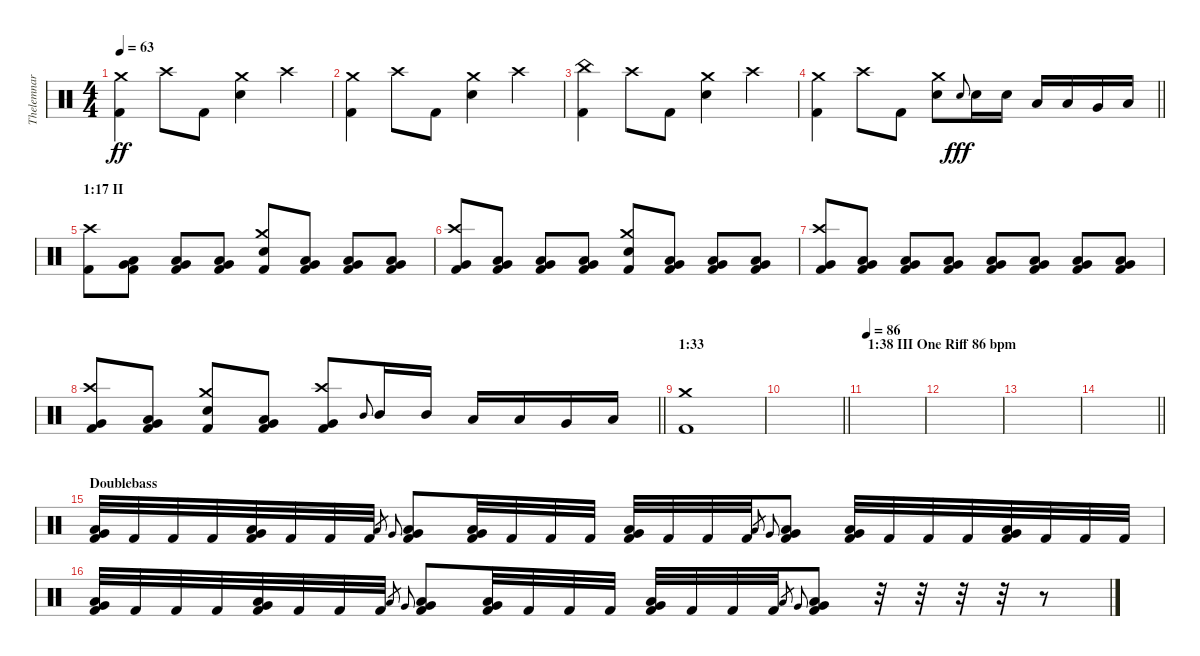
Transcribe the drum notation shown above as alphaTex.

\track ("Thelemnar (Drums)" "Thelemnar ") {instrument percussion}
\staff {score}
\articulation defaults
\ts (4 4)
\tempo 63
\clef neutral
\ks c
("Kick (hit) 2" "Crash medium (hit)").4{dy ff} "Crash high (hit)".8 "Kick (hit) 2".8 ("Electric Snare (hit)" "Crash medium (hit)").4 "Crash high (hit)".4 |
("Kick (hit) 2" "Crash medium (hit)").4 "Crash high (hit)".8 "Kick (hit) 2".8 ("Electric Snare (hit)" "Crash medium (hit)").4 "Crash high (hit)".4 |
("Kick (hit) 2" "China (hit)").4 "Crash high (hit)".8 "Kick (hit) 2".8 ("Electric Snare (hit)" "Crash medium (hit)").4 "Crash high (hit)".4 |
\barLineRight lightlight
("Kick (hit) 2" "Crash medium (hit)").4 "Crash high (hit)".8 "Kick (hit) 2".8 ("Electric Snare (hit)" "Crash medium (hit)").8 "Electric Snare (hit)".8{gr onbeat dy fff} "Electric Snare (hit)".16 "Electric Snare (hit)".16 "Low Tom (hit)".16 "Low Tom (hit)".16 "Very Low Tom (hit)".16 "Low Floor Tom (hit)".16 |
\section ("" "1:17 II ")
("Kick (hit) 2" "Crash high (hit)").8 ("Kick (hit) 2" "Very Low Tom (hit)" "Low Tom (hit)").8 ("Kick (hit) 2" "Very Low Tom (hit)" "Low Tom (hit)").8 ("Kick (hit) 2" "Very Low Tom (hit)" "Low Tom (hit)").8 ("Kick (hit) 2" "Electric Snare (hit)" "Crash medium (hit)").8 ("Kick (hit) 2" "Very Low Tom (hit)" "Low Tom (hit)").8 ("Kick (hit) 2" "Very Low Tom (hit)" "Low Tom (hit)").8 ("Kick (hit) 2" "Very Low Tom (hit)" "Low Tom (hit)").8 |
("Kick (hit) 2" "Very Low Tom (hit)" "Crash high (hit)").8 ("Kick (hit) 2" "Very Low Tom (hit)" "Low Tom (hit)").8 ("Kick (hit) 2" "Very Low Tom (hit)" "Low Tom (hit)").8 ("Kick (hit) 2" "Very Low Tom (hit)" "Low Tom (hit)").8 ("Kick (hit) 2" "Electric Snare (hit)" "Crash medium (hit)").8 ("Kick (hit) 2" "Very Low Tom (hit)" "Low Tom (hit)").8 ("Kick (hit) 2" "Very Low Tom (hit)" "Low Tom (hit)").8 ("Kick (hit) 2" "Very Low Tom (hit)" "Low Tom (hit)").8 |
("Kick (hit) 2" "Very Low Tom (hit)" "Crash high (hit)").8 ("Kick (hit) 2" "Very Low Tom (hit)" "Low Tom (hit)").8 ("Kick (hit) 2" "Very Low Tom (hit)" "Low Tom (hit)").8 ("Kick (hit) 2" "Very Low Tom (hit)" "Low Tom (hit)").8 ("Kick (hit) 2" "Very Low Tom (hit)" "Low Tom (hit)").8 ("Kick (hit) 2" "Very Low Tom (hit)" "Low Tom (hit)").8 ("Kick (hit) 2" "Very Low Tom (hit)" "Low Tom (hit)").8 ("Kick (hit) 2" "Very Low Tom (hit)" "Low Tom (hit)").8 |
\barLineRight lightlight
("Kick (hit) 2" "Very Low Tom (hit)" "Crash high (hit)").8 ("Kick (hit) 2" "Very Low Tom (hit)" "Low Tom (hit)").8 ("Kick (hit) 2" "Electric Snare (hit)" "Crash medium (hit)").8 ("Kick (hit) 2" "Very Low Tom (hit)" "Low Tom (hit)").8 ("Kick (hit) 2" "Very Low Tom (hit)" "Crash high (hit)").8 "Mid Tom (hit)".8{gr onbeat} "Mid Tom (hit)".16 "Mid Tom (hit)".16 "Low Tom (hit)".16 "Low Tom (hit)".16 "Very Low Tom (hit)".16 "Low Floor Tom (hit)".16 |
\section ("" "1:33")
("Kick (hit) 2" "Crash medium (hit)").1 |
\barLineRight lightlight
|
\section ("" "1:38 III One Riff 86 bpm")
\tempo 86
|
|
|
\barLineRight lightlight
|
\section ("" "Doublebass")
("Kick (hit) 2" "Low Floor Tom (hit)" "Very Low Tom (hit)").32 "Kick (hit) 2".32 "Kick (hit) 2".32 "Kick (hit) 2".32 ("Kick (hit) 2" "Low Floor Tom (hit)" "Very Low Tom (hit)").32 "Kick (hit) 2".32 "Kick (hit) 2".32 "Kick (hit) 2".32 "Low Tom (hit)".16{gr} "Very Low Tom (hit)".16{gr onbeat} ("Kick (hit) 2" "Low Tom (hit)" "Very Low Tom (hit)").8 ("Kick (hit) 2" "Low Floor Tom (hit)" "Very Low Tom (hit)").32 "Kick (hit) 2".32 "Kick (hit) 2".32 "Kick (hit) 2".32 ("Kick (hit) 2" "Low Floor Tom (hit)" "Very Low Tom (hit)").32 "Kick (hit) 2".32 "Kick (hit) 2".32 "Kick (hit) 2".32 "Low Tom (hit)".16{gr} "Very Low Tom (hit)".16{gr onbeat} ("Kick (hit) 2" "Low Tom (hit)" "Very Low Tom (hit)").8 ("Kick (hit) 2" "Low Floor Tom (hit)" "Very Low Tom (hit)").32 "Kick (hit) 2".32 "Kick (hit) 2".32 "Kick (hit) 2".32 ("Kick (hit) 2" "Low Tom (hit)" "Very Low Tom (hit)").32 "Kick (hit) 2".32 "Kick (hit) 2".32 "Kick (hit) 2".32 |
("Kick (hit) 2" "Low Floor Tom (hit)" "Very Low Tom (hit)").32 "Kick (hit) 2".32 "Kick (hit) 2".32 "Kick (hit) 2".32 ("Kick (hit) 2" "Low Floor Tom (hit)" "Very Low Tom (hit)").32 "Kick (hit) 2".32 "Kick (hit) 2".32 "Kick (hit) 2".32 "Low Tom (hit)".16{gr} "Very Low Tom (hit)".16{gr onbeat} ("Kick (hit) 2" "Low Tom (hit)" "Very Low Tom (hit)").8 ("Kick (hit) 2" "Low Floor Tom (hit)" "Very Low Tom (hit)").32 "Kick (hit) 2".32 "Kick (hit) 2".32 "Kick (hit) 2".32 ("Kick (hit) 2" "Low Floor Tom (hit)" "Very Low Tom (hit)").32 "Kick (hit) 2".32 "Kick (hit) 2".32 "Kick (hit) 2".32 "Low Tom (hit)".16{gr} "Very Low Tom (hit)".16{gr onbeat} ("Kick (hit) 2" "Low Tom (hit)" "Very Low Tom (hit)").8 r.32 r.32 r.32 r.32 r.8
